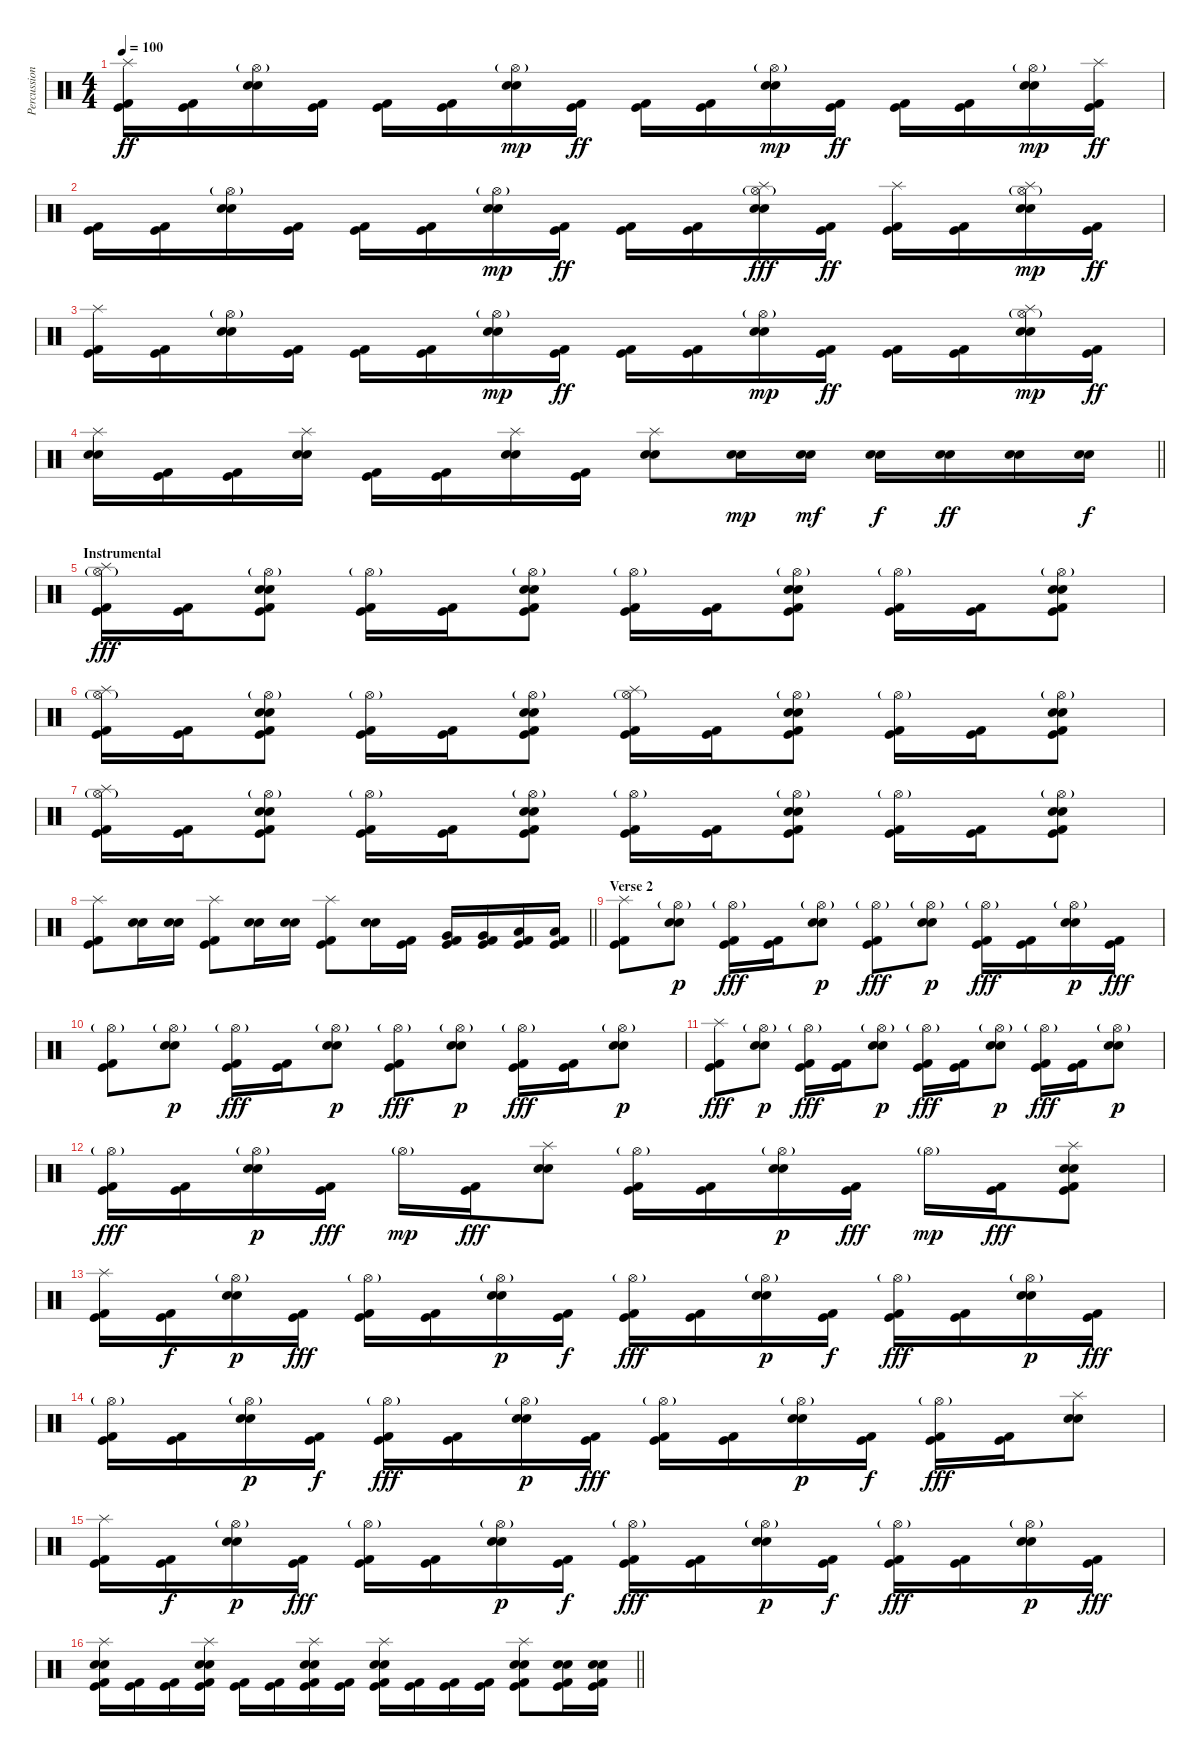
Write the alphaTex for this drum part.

\track ("Percussion" "Percussion") {instrument percussion}
\staff {score}
\articulation defaults
\ts (4 4)
\tempo 100
\clef neutral
\ks c
("Splash (hit)" "Kick (hit)" "Kick (hit) 2").16{dy ff} ("Kick (hit)" "Kick (hit) 2").16 ("Hi-Hat (open)"{g} "Electric Snare (hit)" "Snare (hit) 2").16 ("Kick (hit)" "Kick (hit) 2").16 ("Kick (hit)" "Kick (hit) 2").16 ("Kick (hit)" "Kick (hit) 2").16 ("Hi-Hat (open)"{g} "Electric Snare (hit)" "Snare (hit) 2").16{dy mp} ("Kick (hit)" "Kick (hit) 2").16{dy ff} ("Kick (hit)" "Kick (hit) 2").16 ("Kick (hit)" "Kick (hit) 2").16 ("Hi-Hat (open)"{g} "Electric Snare (hit)" "Snare (hit) 2").16{dy mp} ("Kick (hit)" "Kick (hit) 2").16{dy ff} ("Kick (hit)" "Kick (hit) 2").16 ("Kick (hit)" "Kick (hit) 2").16 ("Hi-Hat (open)"{g} "Electric Snare (hit)" "Snare (hit) 2").16{dy mp} ("Splash (hit)" "Kick (hit)" "Kick (hit) 2").16{dy ff} |
("Kick (hit)" "Kick (hit) 2").16 ("Kick (hit)" "Kick (hit) 2").16 ("Hi-Hat (open)"{g} "Electric Snare (hit)" "Snare (hit) 2").16 ("Kick (hit)" "Kick (hit) 2").16 ("Kick (hit)" "Kick (hit) 2").16 ("Kick (hit)" "Kick (hit) 2").16 ("Hi-Hat (open)"{g} "Electric Snare (hit)" "Snare (hit) 2").16{dy mp} ("Kick (hit)" "Kick (hit) 2").16{dy ff} ("Kick (hit)" "Kick (hit) 2").16 ("Kick (hit)" "Kick (hit) 2").16 ("Hi-Hat (open)"{g} "Electric Snare (hit)" "Snare (hit) 2" "Splash (hit)").16{dy fff} ("Kick (hit)" "Kick (hit) 2").16{dy ff} ("Splash (hit)" "Kick (hit)" "Kick (hit) 2").16 ("Kick (hit)" "Kick (hit) 2").16 ("Hi-Hat (open)"{g} "Electric Snare (hit)" "Snare (hit) 2" "Splash (hit)").16{dy mp} ("Kick (hit)" "Kick (hit) 2").16{dy ff} |
("Splash (hit)" "Kick (hit)" "Kick (hit) 2").16 ("Kick (hit)" "Kick (hit) 2").16 ("Hi-Hat (open)"{g} "Electric Snare (hit)" "Snare (hit) 2").16 ("Kick (hit)" "Kick (hit) 2").16 ("Kick (hit)" "Kick (hit) 2").16 ("Kick (hit)" "Kick (hit) 2").16 ("Hi-Hat (open)"{g} "Electric Snare (hit)" "Snare (hit) 2").16{dy mp} ("Kick (hit)" "Kick (hit) 2").16{dy ff} ("Kick (hit)" "Kick (hit) 2").16 ("Kick (hit)" "Kick (hit) 2").16 ("Hi-Hat (open)"{g} "Electric Snare (hit)" "Snare (hit) 2").16{dy mp} ("Kick (hit)" "Kick (hit) 2").16{dy ff} ("Kick (hit)" "Kick (hit) 2").16 ("Kick (hit)" "Kick (hit) 2").16 ("Hi-Hat (open)"{g} "Electric Snare (hit)" "Snare (hit) 2" "Splash (hit)").16{dy mp} ("Kick (hit)" "Kick (hit) 2").16{dy ff} |
\barLineRight lightlight
("Splash (hit)" "Electric Snare (hit)" "Snare (hit) 2").16 ("Kick (hit)" "Kick (hit) 2").16 ("Kick (hit)" "Kick (hit) 2").16 ("Splash (hit)" "Electric Snare (hit)" "Snare (hit) 2").16 ("Kick (hit)" "Kick (hit) 2").16 ("Kick (hit)" "Kick (hit) 2").16 ("Splash (hit)" "Electric Snare (hit)" "Snare (hit) 2").16 ("Kick (hit)" "Kick (hit) 2").16 ("Splash (hit)" "Electric Snare (hit)" "Snare (hit) 2").8 ("Electric Snare (hit)" "Snare (hit) 2").16{dy mp} ("Electric Snare (hit)" "Snare (hit) 2").16{dy mf} ("Electric Snare (hit)" "Snare (hit) 2").16{dy f} ("Electric Snare (hit)" "Snare (hit) 2").16{dy ff} ("Electric Snare (hit)" "Snare (hit) 2").16 ("Electric Snare (hit)" "Snare (hit) 2").16{dy f} |
\section ("" "Instrumental")
("Hi-Hat (open)"{g} "Splash (hit)" "Kick (hit)" "Kick (hit) 2").16{dy fff} ("Kick (hit)" "Kick (hit) 2").16 ("Hi-Hat (open)"{g} "Electric Snare (hit)" "Snare (hit) 2" "Kick (hit)" "Kick (hit) 2").8 ("Hi-Hat (open)"{g} "Kick (hit)" "Kick (hit) 2").16 ("Kick (hit)" "Kick (hit) 2").16 ("Hi-Hat (open)"{g} "Electric Snare (hit)" "Snare (hit) 2" "Kick (hit)" "Kick (hit) 2").8 ("Hi-Hat (open)"{g} "Kick (hit)" "Kick (hit) 2").16 ("Kick (hit)" "Kick (hit) 2").16 ("Hi-Hat (open)"{g} "Electric Snare (hit)" "Snare (hit) 2" "Kick (hit)" "Kick (hit) 2").8 ("Hi-Hat (open)"{g} "Kick (hit)" "Kick (hit) 2").16 ("Kick (hit)" "Kick (hit) 2").16 ("Hi-Hat (open)"{g} "Electric Snare (hit)" "Snare (hit) 2" "Kick (hit)" "Kick (hit) 2").8 |
("Hi-Hat (open)"{g} "Splash (hit)" "Kick (hit)" "Kick (hit) 2").16 ("Kick (hit)" "Kick (hit) 2").16 ("Hi-Hat (open)"{g} "Electric Snare (hit)" "Snare (hit) 2" "Kick (hit)" "Kick (hit) 2").8 ("Hi-Hat (open)"{g} "Kick (hit)" "Kick (hit) 2").16 ("Kick (hit)" "Kick (hit) 2").16 ("Hi-Hat (open)"{g} "Electric Snare (hit)" "Snare (hit) 2" "Kick (hit)" "Kick (hit) 2").8 ("Hi-Hat (open)"{g} "Splash (hit)" "Kick (hit)" "Kick (hit) 2").16 ("Kick (hit)" "Kick (hit) 2").16 ("Hi-Hat (open)"{g} "Electric Snare (hit)" "Snare (hit) 2" "Kick (hit)" "Kick (hit) 2").8 ("Hi-Hat (open)"{g} "Kick (hit)" "Kick (hit) 2").16 ("Kick (hit)" "Kick (hit) 2").16 ("Hi-Hat (open)"{g} "Electric Snare (hit)" "Snare (hit) 2" "Kick (hit)" "Kick (hit) 2").8 |
("Hi-Hat (open)"{g} "Splash (hit)" "Kick (hit)" "Kick (hit) 2").16 ("Kick (hit)" "Kick (hit) 2").16 ("Hi-Hat (open)"{g} "Electric Snare (hit)" "Snare (hit) 2" "Kick (hit)" "Kick (hit) 2").8 ("Hi-Hat (open)"{g} "Kick (hit)" "Kick (hit) 2").16 ("Kick (hit)" "Kick (hit) 2").16 ("Hi-Hat (open)"{g} "Electric Snare (hit)" "Snare (hit) 2" "Kick (hit)" "Kick (hit) 2").8 ("Hi-Hat (open)"{g} "Kick (hit)" "Kick (hit) 2").16 ("Kick (hit)" "Kick (hit) 2").16 ("Hi-Hat (open)"{g} "Electric Snare (hit)" "Snare (hit) 2" "Kick (hit)" "Kick (hit) 2").8 ("Hi-Hat (open)"{g} "Kick (hit)" "Kick (hit) 2").16 ("Kick (hit)" "Kick (hit) 2").16 ("Hi-Hat (open)"{g} "Electric Snare (hit)" "Snare (hit) 2" "Kick (hit)" "Kick (hit) 2").8 |
\barLineRight lightlight
("Splash (hit)" "Kick (hit)" "Kick (hit) 2").8 ("Electric Snare (hit)" "Snare (hit) 2").16 ("Electric Snare (hit)" "Snare (hit) 2").16 ("Splash (hit)" "Kick (hit)" "Kick (hit) 2").8 ("Electric Snare (hit)" "Snare (hit) 2").16 ("Electric Snare (hit)" "Snare (hit) 2").16 ("Splash (hit)" "Kick (hit)" "Kick (hit) 2").8 ("Electric Snare (hit)" "Snare (hit) 2").16 ("Kick (hit)" "Kick (hit) 2").16 ("Very Low Tom (hit)" "Kick (hit)" "Kick (hit) 2").16 ("Very Low Tom (hit)" "Kick (hit)" "Kick (hit) 2").16 ("Low Floor Tom (hit)" "Kick (hit)" "Kick (hit) 2").16 ("Low Floor Tom (hit)" "Kick (hit)" "Kick (hit) 2").16 |
\section ("" "Verse 2")
("Splash (hit)" "Kick (hit)" "Kick (hit) 2").8 ("Electric Snare (hit)" "Snare (hit) 2" "Hi-Hat (open)"{g}).8{dy p} ("Hi-Hat (open)"{g} "Kick (hit)" "Kick (hit) 2").16{dy fff} ("Kick (hit)" "Kick (hit) 2").16 ("Electric Snare (hit)" "Snare (hit) 2" "Hi-Hat (open)"{g}).8{dy p} ("Hi-Hat (open)"{g} "Kick (hit)" "Kick (hit) 2").8{dy fff} ("Electric Snare (hit)" "Snare (hit) 2" "Hi-Hat (open)"{g}).8{dy p} ("Hi-Hat (open)"{g} "Kick (hit)" "Kick (hit) 2").16{dy fff} ("Kick (hit)" "Kick (hit) 2").16 ("Electric Snare (hit)" "Snare (hit) 2" "Hi-Hat (open)"{g}).16{dy p} ("Kick (hit)" "Kick (hit) 2").16{dy fff} |
("Hi-Hat (open)"{g} "Kick (hit)" "Kick (hit) 2").8 ("Electric Snare (hit)" "Snare (hit) 2" "Hi-Hat (open)"{g}).8{dy p} ("Hi-Hat (open)"{g} "Kick (hit)" "Kick (hit) 2").16{dy fff} ("Kick (hit)" "Kick (hit) 2").16 ("Electric Snare (hit)" "Snare (hit) 2" "Hi-Hat (open)"{g}).8{dy p} ("Hi-Hat (open)"{g} "Kick (hit)" "Kick (hit) 2").8{dy fff} ("Electric Snare (hit)" "Snare (hit) 2" "Hi-Hat (open)"{g}).8{dy p} ("Hi-Hat (open)"{g} "Kick (hit)" "Kick (hit) 2").16{dy fff} ("Kick (hit)" "Kick (hit) 2").16 ("Electric Snare (hit)" "Snare (hit) 2" "Hi-Hat (open)"{g}).8{dy p} |
("Splash (hit)" "Kick (hit)" "Kick (hit) 2").8{dy fff} ("Electric Snare (hit)" "Snare (hit) 2" "Hi-Hat (open)"{g}).8{dy p} ("Hi-Hat (open)"{g} "Kick (hit)" "Kick (hit) 2").16{dy fff} ("Kick (hit)" "Kick (hit) 2").16 ("Electric Snare (hit)" "Snare (hit) 2" "Hi-Hat (open)"{g}).8{dy p} ("Hi-Hat (open)"{g} "Kick (hit)" "Kick (hit) 2").16{dy fff} ("Kick (hit)" "Kick (hit) 2").16 ("Electric Snare (hit)" "Snare (hit) 2" "Hi-Hat (open)"{g}).8{dy p} ("Hi-Hat (open)"{g} "Kick (hit)" "Kick (hit) 2").16{dy fff} ("Kick (hit)" "Kick (hit) 2").16 ("Electric Snare (hit)" "Snare (hit) 2" "Hi-Hat (open)"{g}).8{dy p} |
("Hi-Hat (open)"{g} "Kick (hit)" "Kick (hit) 2").16{dy fff} ("Kick (hit)" "Kick (hit) 2").16 ("Electric Snare (hit)" "Snare (hit) 2" "Hi-Hat (open)"{g}).16{dy p} ("Kick (hit)" "Kick (hit) 2").16{dy fff} "Hi-Hat (open)"{g}.16{dy mp} ("Kick (hit)" "Kick (hit) 2").16{dy fff} ("Splash (hit)" "Electric Snare (hit)" "Snare (hit) 2").8 ("Hi-Hat (open)"{g} "Kick (hit)" "Kick (hit) 2").16 ("Kick (hit)" "Kick (hit) 2").16 ("Electric Snare (hit)" "Snare (hit) 2" "Hi-Hat (open)"{g}).16{dy p} ("Kick (hit)" "Kick (hit) 2").16{dy fff} "Hi-Hat (open)"{g}.16{dy mp} ("Kick (hit)" "Kick (hit) 2").16{dy fff} ("Splash (hit)" "Electric Snare (hit)" "Snare (hit) 2" "Kick (hit)" "Kick (hit) 2").8 |
("Splash (hit)" "Kick (hit)" "Kick (hit) 2").16 ("Kick (hit)" "Kick (hit) 2").16{dy f} ("Electric Snare (hit)" "Snare (hit) 2" "Hi-Hat (open)"{g}).16{dy p} ("Kick (hit)" "Kick (hit) 2").16{dy fff} ("Hi-Hat (open)"{g} "Kick (hit)" "Kick (hit) 2").16 ("Kick (hit)" "Kick (hit) 2").16 ("Electric Snare (hit)" "Snare (hit) 2" "Hi-Hat (open)"{g}).16{dy p} ("Kick (hit)" "Kick (hit) 2").16{dy f} ("Hi-Hat (open)"{g} "Kick (hit)" "Kick (hit) 2").16{dy fff} ("Kick (hit)" "Kick (hit) 2").16 ("Electric Snare (hit)" "Snare (hit) 2" "Hi-Hat (open)"{g}).16{dy p} ("Kick (hit)" "Kick (hit) 2").16{dy f} ("Hi-Hat (open)"{g} "Kick (hit)" "Kick (hit) 2").16{dy fff} ("Kick (hit)" "Kick (hit) 2").16 ("Electric Snare (hit)" "Snare (hit) 2" "Hi-Hat (open)"{g}).16{dy p} ("Kick (hit)" "Kick (hit) 2").16{dy fff} |
("Hi-Hat (open)"{g} "Kick (hit)" "Kick (hit) 2").16 ("Kick (hit)" "Kick (hit) 2").16 ("Electric Snare (hit)" "Snare (hit) 2" "Hi-Hat (open)"{g}).16{dy p} ("Kick (hit)" "Kick (hit) 2").16{dy f} ("Hi-Hat (open)"{g} "Kick (hit)" "Kick (hit) 2").16{dy fff} ("Kick (hit)" "Kick (hit) 2").16 ("Electric Snare (hit)" "Snare (hit) 2" "Hi-Hat (open)"{g}).16{dy p} ("Kick (hit)" "Kick (hit) 2").16{dy fff} ("Hi-Hat (open)"{g} "Kick (hit)" "Kick (hit) 2").16 ("Kick (hit)" "Kick (hit) 2").16 ("Electric Snare (hit)" "Snare (hit) 2" "Hi-Hat (open)"{g}).16{dy p} ("Kick (hit)" "Kick (hit) 2").16{dy f} ("Hi-Hat (open)"{g} "Kick (hit)" "Kick (hit) 2").16{dy fff} ("Kick (hit)" "Kick (hit) 2").16 ("Splash (hit)" "Electric Snare (hit)" "Snare (hit) 2").8 |
("Splash (hit)" "Kick (hit)" "Kick (hit) 2").16 ("Kick (hit)" "Kick (hit) 2").16{dy f} ("Electric Snare (hit)" "Snare (hit) 2" "Hi-Hat (open)"{g}).16{dy p} ("Kick (hit)" "Kick (hit) 2").16{dy fff} ("Hi-Hat (open)"{g} "Kick (hit)" "Kick (hit) 2").16 ("Kick (hit)" "Kick (hit) 2").16 ("Electric Snare (hit)" "Snare (hit) 2" "Hi-Hat (open)"{g}).16{dy p} ("Kick (hit)" "Kick (hit) 2").16{dy f} ("Hi-Hat (open)"{g} "Kick (hit)" "Kick (hit) 2").16{dy fff} ("Kick (hit)" "Kick (hit) 2").16 ("Electric Snare (hit)" "Snare (hit) 2" "Hi-Hat (open)"{g}).16{dy p} ("Kick (hit)" "Kick (hit) 2").16{dy f} ("Hi-Hat (open)"{g} "Kick (hit)" "Kick (hit) 2").16{dy fff} ("Kick (hit)" "Kick (hit) 2").16 ("Electric Snare (hit)" "Snare (hit) 2" "Hi-Hat (open)"{g}).16{dy p} ("Kick (hit)" "Kick (hit) 2").16{dy fff} |
\barLineRight lightlight
("Splash (hit)" "Electric Snare (hit)" "Snare (hit) 2" "Kick (hit)" "Kick (hit) 2").16 ("Kick (hit)" "Kick (hit) 2").16 ("Kick (hit)" "Kick (hit) 2").16 ("Splash (hit)" "Electric Snare (hit)" "Snare (hit) 2" "Kick (hit)" "Kick (hit) 2").16 ("Kick (hit)" "Kick (hit) 2").16 ("Kick (hit)" "Kick (hit) 2").16 ("Splash (hit)" "Electric Snare (hit)" "Snare (hit) 2" "Kick (hit)" "Kick (hit) 2").16 ("Kick (hit)" "Kick (hit) 2").16 ("Splash (hit)" "Electric Snare (hit)" "Snare (hit) 2" "Kick (hit)" "Kick (hit) 2").16 ("Kick (hit)" "Kick (hit) 2").16 ("Kick (hit)" "Kick (hit) 2").16 ("Kick (hit)" "Kick (hit) 2").16 ("Splash (hit)" "Electric Snare (hit)" "Snare (hit) 2" "Kick (hit)" "Kick (hit) 2").8 ("Electric Snare (hit)" "Snare (hit) 2" "Kick (hit)" "Kick (hit) 2").16 ("Electric Snare (hit)" "Snare (hit) 2" "Kick (hit)" "Kick (hit) 2").16
